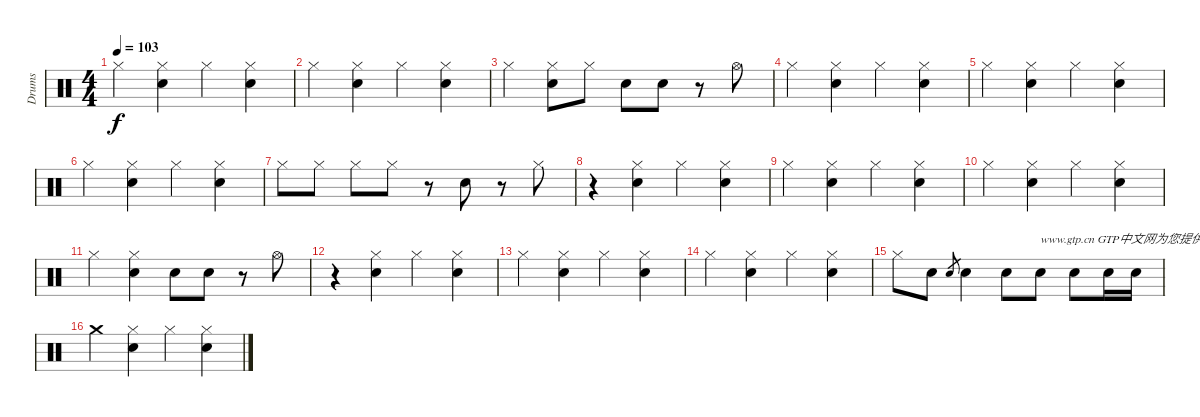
\track ("Drums" "Drums") {instrument percussion}
\staff {score}
\articulation defaults
\ts (4 4)
\tempo 103
\clef neutral
\ks c "Hi-Hat (closed)".4{dy f}
("Hi-Hat (closed)" "Electric Snare (hit)").4 "Hi-Hat (closed)".4 ("Hi-Hat (closed)" "Electric Snare (hit)").4 |
"Hi-Hat (closed)".4 ("Hi-Hat (closed)" "Electric Snare (hit)").4 "Hi-Hat (closed)".4 ("Hi-Hat (closed)" "Electric Snare (hit)").4 |
"Hi-Hat (closed)".4 ("Hi-Hat (closed)" "Electric Snare (hit)").8 "Hi-Hat (closed)".8 "Electric Snare (hit)".8 "Electric Snare (hit)".8 r.8 "Hi-Hat (open)".8 |
"Hi-Hat (closed)".4 ("Hi-Hat (closed)" "Electric Snare (hit)").4 "Hi-Hat (closed)".4 ("Hi-Hat (closed)" "Electric Snare (hit)").4 |
"Hi-Hat (closed)".4 ("Hi-Hat (closed)" "Electric Snare (hit)").4 "Hi-Hat (closed)".4 ("Hi-Hat (closed)" "Electric Snare (hit)").4 |
"Hi-Hat (closed)".4 ("Hi-Hat (closed)" "Electric Snare (hit)").4 "Hi-Hat (closed)".4 ("Hi-Hat (closed)" "Electric Snare (hit)").4 |
"Hi-Hat (closed)".8 "Hi-Hat (closed)".8 "Hi-Hat (closed)".8 "Hi-Hat (closed)".8 r.8 "Electric Snare (hit)".8 r.8 "Hi-Hat (closed)".8 |
r.4 ("Hi-Hat (closed)" "Electric Snare (hit)").4 "Hi-Hat (closed)".4 ("Hi-Hat (closed)" "Electric Snare (hit)").4 |
"Hi-Hat (closed)".4 ("Hi-Hat (closed)" "Electric Snare (hit)").4 "Hi-Hat (closed)".4 ("Hi-Hat (closed)" "Electric Snare (hit)").4 |
"Hi-Hat (closed)".4 ("Hi-Hat (closed)" "Electric Snare (hit)").4 "Hi-Hat (closed)".4 ("Hi-Hat (closed)" "Electric Snare (hit)").4 |
"Hi-Hat (closed)".4 ("Hi-Hat (closed)" "Electric Snare (hit)").4 "Electric Snare (hit)".8 "Electric Snare (hit)".8 r.8 "Hi-Hat (open)".8 |
r.4 ("Hi-Hat (closed)" "Electric Snare (hit)").4 "Hi-Hat (closed)".4 ("Hi-Hat (closed)" "Electric Snare (hit)").4 |
"Hi-Hat (closed)".4 ("Hi-Hat (closed)" "Electric Snare (hit)").4 "Hi-Hat (closed)".4 ("Hi-Hat (closed)" "Electric Snare (hit)").4 |
"Hi-Hat (closed)".4 ("Hi-Hat (closed)" "Electric Snare (hit)").4 "Hi-Hat (closed)".4 ("Hi-Hat (closed)" "Electric Snare (hit)").4 |
"Hi-Hat (closed)".8 "Electric Snare (hit)".8 "Electric Snare (hit)".8{gr} "Electric Snare (hit)".4 "Electric Snare (hit)".8 "Electric Snare (hit)".8{txt "www.gtp.cn GTP中文网为您提供优秀的谱子"} "Electric Snare (hit)".8 "Electric Snare (hit)".16 "Electric Snare (hit)".16 |
"Crash medium (hit)".4 ("Hi-Hat (closed)" "Electric Snare (hit)").4 "Hi-Hat (closed)".4 ("Hi-Hat (closed)" "Electric Snare (hit)").4
